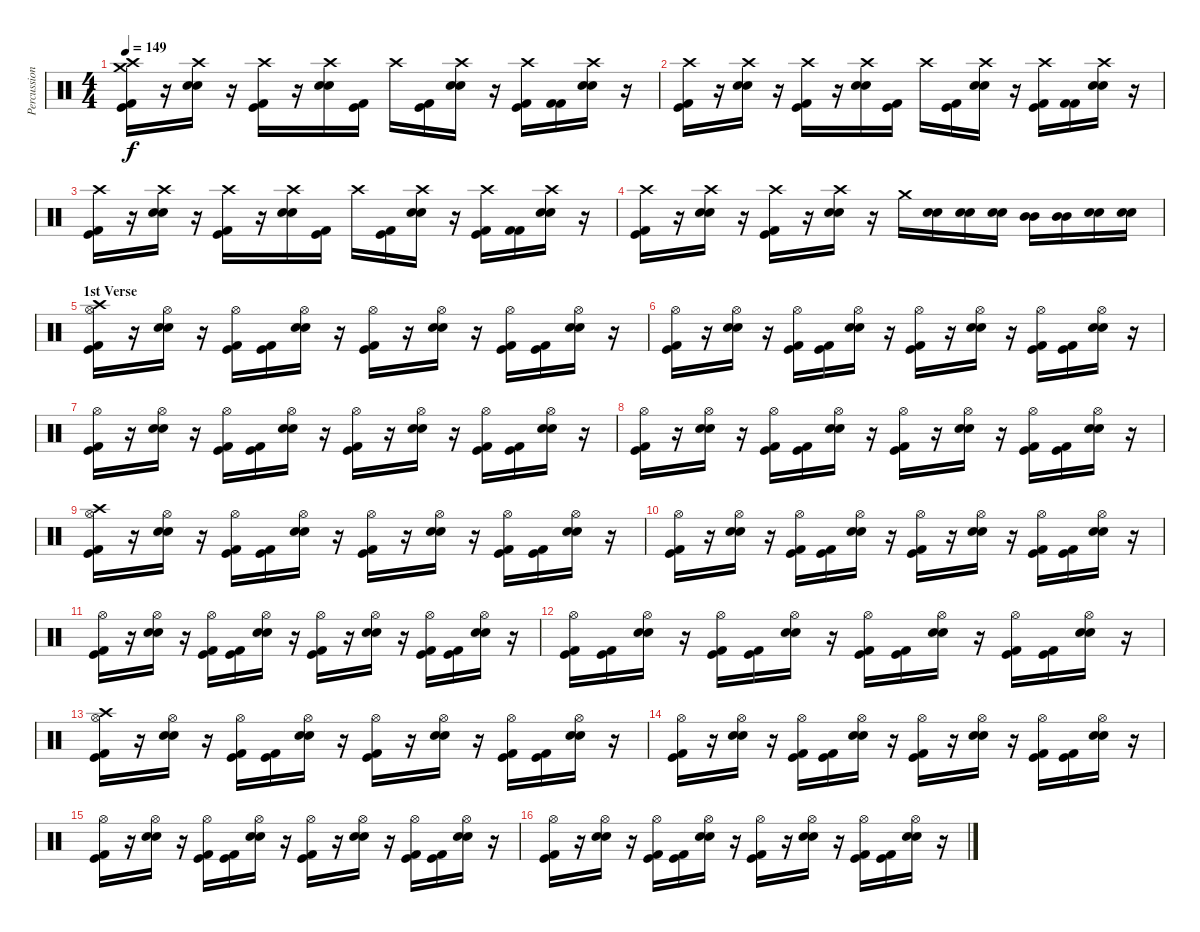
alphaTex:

\track ("Percussioni" "Percussion") {instrument percussion}
\staff {score}
\articulation defaults
\ts (4 4)
\tempo 149
\clef neutral
\ks c
("Crash high (hit)" "Crash medium (hit)" "Kick (hit) 2" "Kick (hit)").16{dy f} r.16 ("Crash high (hit)" "Snare (hit) 2" "Snare (hit) 2").16 r.16 ("Crash high (hit)" "Kick (hit)" "Kick (hit) 2").16 r.16 ("Crash high (hit)" "Snare (hit) 2" "Snare (hit) 2").16 ("Kick (hit)" "Kick (hit) 2").16 "Crash high (hit)".16 ("Kick (hit) 2" "Kick (hit)").16 ("Crash high (hit)" "Snare (hit) 2" "Snare (hit) 2").16 r.16 ("Crash high (hit)" "Kick (hit)" "Kick (hit) 2").16 ("Kick (hit) 2" "Kick (hit) 2").16 ("Crash high (hit)" "Snare (hit) 2" "Snare (hit) 2").16 r.16 |
("Crash high (hit)" "Kick (hit) 2" "Kick (hit)").16 r.16 ("Crash high (hit)" "Snare (hit) 2" "Snare (hit) 2").16 r.16 ("Crash high (hit)" "Kick (hit)" "Kick (hit) 2").16 r.16 ("Crash high (hit)" "Snare (hit) 2" "Snare (hit) 2").16 ("Kick (hit)" "Kick (hit) 2").16 "Crash high (hit)".16 ("Kick (hit) 2" "Kick (hit)").16 ("Crash high (hit)" "Snare (hit) 2" "Snare (hit) 2").16 r.16 ("Crash high (hit)" "Kick (hit)" "Kick (hit) 2").16 ("Kick (hit) 2" "Kick (hit) 2").16 ("Crash high (hit)" "Snare (hit) 2" "Snare (hit) 2").16 r.16 |
("Crash high (hit)" "Kick (hit) 2" "Kick (hit)").16 r.16 ("Crash high (hit)" "Snare (hit) 2" "Snare (hit) 2").16 r.16 ("Crash high (hit)" "Kick (hit)" "Kick (hit) 2").16 r.16 ("Crash high (hit)" "Snare (hit) 2" "Snare (hit) 2").16 ("Kick (hit)" "Kick (hit) 2").16 "Crash high (hit)".16 ("Kick (hit) 2" "Kick (hit)").16 ("Crash high (hit)" "Snare (hit) 2" "Snare (hit) 2").16 r.16 ("Crash high (hit)" "Kick (hit)" "Kick (hit) 2").16 ("Kick (hit) 2" "Kick (hit) 2").16 ("Crash high (hit)" "Snare (hit) 2" "Snare (hit) 2").16 r.16 |
("Crash high (hit)" "Kick (hit) 2" "Kick (hit)").16 r.16 ("Crash high (hit)" "Snare (hit) 2" "Snare (hit) 2").16 r.16 ("Crash high (hit)" "Kick (hit)" "Kick (hit) 2").16 r.16 ("Crash high (hit)" "Snare (hit) 2" "Snare (hit) 2").16 r.16 "Crash medium (hit)".16 ("Snare (hit) 2" "Snare (hit) 2").16 ("Snare (hit) 2" "Snare (hit) 2").16 ("Snare (hit) 2" "Snare (hit) 2").16 ("Mid Tom (hit)" "Mid Tom (hit)").16 ("Mid Tom (hit)" "Mid Tom (hit)").16 ("Snare (hit) 2" "Snare (hit) 2").16 ("Snare (hit) 2" "Snare (hit) 2").16 |
\section ("" "1st Verse")
("Kick (hit) 2" "Kick (hit)" "Hi-Hat (open)" "Crash high (hit)").16 r.16 ("Snare (hit) 2" "Snare (hit) 2" "Hi-Hat (open)").16 r.16 ("Kick (hit) 2" "Kick (hit)" "Hi-Hat (open)").16 ("Kick (hit) 2" "Kick (hit)").16 ("Snare (hit) 2" "Snare (hit) 2" "Hi-Hat (open)").16 r.16 ("Kick (hit) 2" "Kick (hit)" "Hi-Hat (open)").16 r.16 ("Snare (hit) 2" "Snare (hit) 2" "Hi-Hat (open)").16 r.16 ("Kick (hit) 2" "Kick (hit)" "Hi-Hat (open)").16 ("Kick (hit) 2" "Kick (hit)").16 ("Snare (hit) 2" "Snare (hit) 2" "Hi-Hat (open)").16 r.16 |
("Kick (hit) 2" "Kick (hit)" "Hi-Hat (open)").16 r.16 ("Snare (hit) 2" "Snare (hit) 2" "Hi-Hat (open)").16 r.16 ("Kick (hit) 2" "Kick (hit)" "Hi-Hat (open)").16 ("Kick (hit) 2" "Kick (hit)").16 ("Snare (hit) 2" "Snare (hit) 2" "Hi-Hat (open)").16 r.16 ("Kick (hit) 2" "Kick (hit)" "Hi-Hat (open)").16 r.16 ("Snare (hit) 2" "Snare (hit) 2" "Hi-Hat (open)").16 r.16 ("Kick (hit) 2" "Kick (hit)" "Hi-Hat (open)").16 ("Kick (hit) 2" "Kick (hit)").16 ("Snare (hit) 2" "Snare (hit) 2" "Hi-Hat (open)").16 r.16 |
("Kick (hit) 2" "Kick (hit)" "Hi-Hat (open)").16 r.16 ("Snare (hit) 2" "Snare (hit) 2" "Hi-Hat (open)").16 r.16 ("Kick (hit) 2" "Kick (hit)" "Hi-Hat (open)").16 ("Kick (hit) 2" "Kick (hit)").16 ("Snare (hit) 2" "Snare (hit) 2" "Hi-Hat (open)").16 r.16 ("Kick (hit) 2" "Kick (hit)" "Hi-Hat (open)").16 r.16 ("Snare (hit) 2" "Snare (hit) 2" "Hi-Hat (open)").16 r.16 ("Kick (hit) 2" "Kick (hit)" "Hi-Hat (open)").16 ("Kick (hit) 2" "Kick (hit)").16 ("Snare (hit) 2" "Snare (hit) 2" "Hi-Hat (open)").16 r.16 |
("Kick (hit) 2" "Kick (hit)" "Hi-Hat (open)").16 r.16 ("Snare (hit) 2" "Snare (hit) 2" "Hi-Hat (open)").16 r.16 ("Kick (hit) 2" "Kick (hit)" "Hi-Hat (open)").16 ("Kick (hit) 2" "Kick (hit)").16 ("Snare (hit) 2" "Snare (hit) 2" "Hi-Hat (open)").16 r.16 ("Kick (hit) 2" "Kick (hit)" "Hi-Hat (open)").16 r.16 ("Snare (hit) 2" "Snare (hit) 2" "Hi-Hat (open)").16 r.16 ("Kick (hit) 2" "Kick (hit)" "Hi-Hat (open)").16 ("Kick (hit) 2" "Kick (hit)").16 ("Snare (hit) 2" "Snare (hit) 2" "Hi-Hat (open)").16 r.16 |
("Kick (hit) 2" "Kick (hit)" "Hi-Hat (open)" "Crash high (hit)").16 r.16 ("Snare (hit) 2" "Snare (hit) 2" "Hi-Hat (open)").16 r.16 ("Kick (hit) 2" "Kick (hit)" "Hi-Hat (open)").16 ("Kick (hit) 2" "Kick (hit)").16 ("Snare (hit) 2" "Snare (hit) 2" "Hi-Hat (open)").16 r.16 ("Kick (hit) 2" "Kick (hit)" "Hi-Hat (open)").16 r.16 ("Snare (hit) 2" "Snare (hit) 2" "Hi-Hat (open)").16 r.16 ("Kick (hit) 2" "Kick (hit)" "Hi-Hat (open)").16 ("Kick (hit) 2" "Kick (hit)").16 ("Snare (hit) 2" "Snare (hit) 2" "Hi-Hat (open)").16 r.16 |
("Kick (hit) 2" "Kick (hit)" "Hi-Hat (open)").16 r.16 ("Snare (hit) 2" "Snare (hit) 2" "Hi-Hat (open)").16 r.16 ("Kick (hit) 2" "Kick (hit)" "Hi-Hat (open)").16 ("Kick (hit) 2" "Kick (hit)").16 ("Snare (hit) 2" "Snare (hit) 2" "Hi-Hat (open)").16 r.16 ("Kick (hit) 2" "Kick (hit)" "Hi-Hat (open)").16 r.16 ("Snare (hit) 2" "Snare (hit) 2" "Hi-Hat (open)").16 r.16 ("Kick (hit) 2" "Kick (hit)" "Hi-Hat (open)").16 ("Kick (hit) 2" "Kick (hit)").16 ("Snare (hit) 2" "Snare (hit) 2" "Hi-Hat (open)").16 r.16 |
("Kick (hit) 2" "Kick (hit)" "Hi-Hat (open)").16 r.16 ("Snare (hit) 2" "Snare (hit) 2" "Hi-Hat (open)").16 r.16 ("Kick (hit) 2" "Kick (hit)" "Hi-Hat (open)").16 ("Kick (hit) 2" "Kick (hit)").16 ("Snare (hit) 2" "Snare (hit) 2" "Hi-Hat (open)").16 r.16 ("Kick (hit) 2" "Kick (hit)" "Hi-Hat (open)").16 r.16 ("Snare (hit) 2" "Snare (hit) 2" "Hi-Hat (open)").16 r.16 ("Kick (hit) 2" "Kick (hit)" "Hi-Hat (open)").16 ("Kick (hit) 2" "Kick (hit)").16 ("Snare (hit) 2" "Snare (hit) 2" "Hi-Hat (open)").16 r.16 |
("Kick (hit) 2" "Kick (hit)" "Hi-Hat (open)").16 ("Kick (hit) 2" "Kick (hit)").16 ("Snare (hit) 2" "Snare (hit) 2" "Hi-Hat (open)").16 r.16 ("Kick (hit) 2" "Kick (hit)" "Hi-Hat (open)").16 ("Kick (hit) 2" "Kick (hit)").16 ("Snare (hit) 2" "Snare (hit) 2" "Hi-Hat (open)").16 r.16 ("Kick (hit) 2" "Kick (hit)" "Hi-Hat (open)").16 ("Kick (hit) 2" "Kick (hit)").16 ("Snare (hit) 2" "Snare (hit) 2" "Hi-Hat (open)").16 r.16 ("Kick (hit) 2" "Kick (hit)" "Hi-Hat (open)").16 ("Kick (hit) 2" "Kick (hit)").16 ("Snare (hit) 2" "Snare (hit) 2" "Hi-Hat (open)").16 r.16 |
("Kick (hit) 2" "Kick (hit)" "Hi-Hat (open)" "Crash high (hit)").16 r.16 ("Snare (hit) 2" "Snare (hit) 2" "Hi-Hat (open)").16 r.16 ("Kick (hit) 2" "Kick (hit)" "Hi-Hat (open)").16 ("Kick (hit) 2" "Kick (hit)").16 ("Snare (hit) 2" "Snare (hit) 2" "Hi-Hat (open)").16 r.16 ("Kick (hit) 2" "Kick (hit)" "Hi-Hat (open)").16 r.16 ("Snare (hit) 2" "Snare (hit) 2" "Hi-Hat (open)").16 r.16 ("Kick (hit) 2" "Kick (hit)" "Hi-Hat (open)").16 ("Kick (hit) 2" "Kick (hit)").16 ("Snare (hit) 2" "Snare (hit) 2" "Hi-Hat (open)").16 r.16 |
("Kick (hit) 2" "Kick (hit)" "Hi-Hat (open)").16 r.16 ("Snare (hit) 2" "Snare (hit) 2" "Hi-Hat (open)").16 r.16 ("Kick (hit) 2" "Kick (hit)" "Hi-Hat (open)").16 ("Kick (hit) 2" "Kick (hit)").16 ("Snare (hit) 2" "Snare (hit) 2" "Hi-Hat (open)").16 r.16 ("Kick (hit) 2" "Kick (hit)" "Hi-Hat (open)").16 r.16 ("Snare (hit) 2" "Snare (hit) 2" "Hi-Hat (open)").16 r.16 ("Kick (hit) 2" "Kick (hit)" "Hi-Hat (open)").16 ("Kick (hit) 2" "Kick (hit)").16 ("Snare (hit) 2" "Snare (hit) 2" "Hi-Hat (open)").16 r.16 |
("Kick (hit) 2" "Kick (hit)" "Hi-Hat (open)").16 r.16 ("Snare (hit) 2" "Snare (hit) 2" "Hi-Hat (open)").16 r.16 ("Kick (hit) 2" "Kick (hit)" "Hi-Hat (open)").16 ("Kick (hit) 2" "Kick (hit)").16 ("Snare (hit) 2" "Snare (hit) 2" "Hi-Hat (open)").16 r.16 ("Kick (hit) 2" "Kick (hit)" "Hi-Hat (open)").16 r.16 ("Snare (hit) 2" "Snare (hit) 2" "Hi-Hat (open)").16 r.16 ("Kick (hit) 2" "Kick (hit)" "Hi-Hat (open)").16 ("Kick (hit) 2" "Kick (hit)").16 ("Snare (hit) 2" "Snare (hit) 2" "Hi-Hat (open)").16 r.16 |
("Kick (hit) 2" "Kick (hit)" "Hi-Hat (open)").16 r.16 ("Snare (hit) 2" "Snare (hit) 2" "Hi-Hat (open)").16 r.16 ("Kick (hit) 2" "Kick (hit)" "Hi-Hat (open)").16 ("Kick (hit) 2" "Kick (hit)").16 ("Snare (hit) 2" "Snare (hit) 2" "Hi-Hat (open)").16 r.16 ("Kick (hit) 2" "Kick (hit)" "Hi-Hat (open)").16 r.16 ("Snare (hit) 2" "Snare (hit) 2" "Hi-Hat (open)").16 r.16 ("Kick (hit) 2" "Kick (hit)" "Hi-Hat (open)").16 ("Kick (hit) 2" "Kick (hit)").16 ("Snare (hit) 2" "Snare (hit) 2" "Hi-Hat (open)").16 r.16
